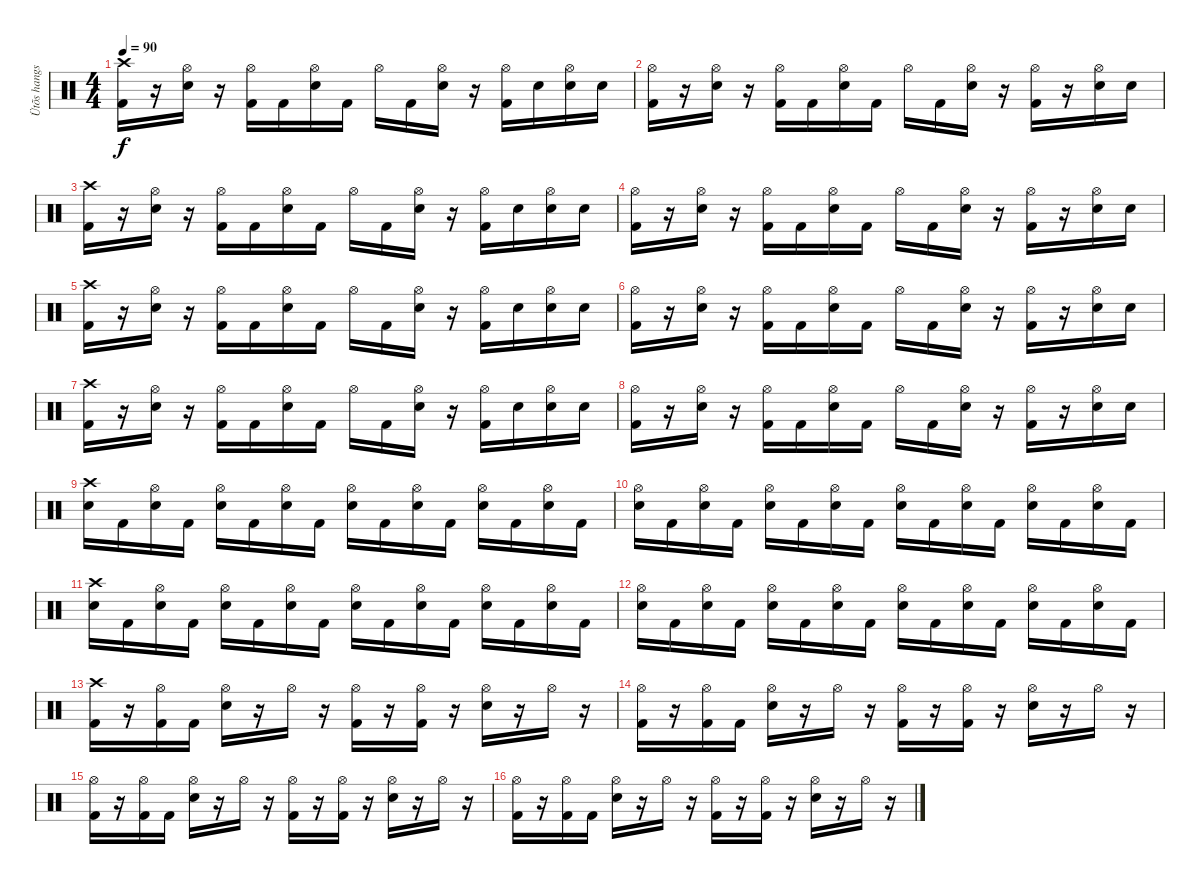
\track ("Ütõs hangszer" "Ütõs hangs") {instrument percussion}
\staff {score}
\articulation defaults
\ts (4 4)
\tempo 90
\clef neutral
\ks c
("Crash high (hit)" "Kick (hit) 2").16{dy f} r.16 ("Hi-Hat (open)" "Snare (hit) 2").16 r.16 ("Hi-Hat (open)" "Kick (hit) 2").16 "Kick (hit) 2".16 ("Hi-Hat (open)" "Snare (hit) 2").16 "Kick (hit) 2".16 "Hi-Hat (open)".16 "Kick (hit) 2".16 ("Hi-Hat (open)" "Snare (hit) 2").16 r.16 ("Hi-Hat (open)" "Kick (hit) 2").16 "Snare (hit) 2".16 ("Hi-Hat (open)" "Snare (hit) 2").16 "Snare (hit) 2".16 |
("Hi-Hat (open)" "Kick (hit) 2").16 r.16 ("Hi-Hat (open)" "Snare (hit) 2").16 r.16 ("Hi-Hat (open)" "Kick (hit) 2").16 "Kick (hit) 2".16 ("Hi-Hat (open)" "Snare (hit) 2").16 "Kick (hit) 2".16 "Hi-Hat (open)".16 "Kick (hit) 2".16 ("Hi-Hat (open)" "Snare (hit) 2").16 r.16 ("Hi-Hat (open)" "Kick (hit) 2").16 r.16 ("Hi-Hat (open)" "Snare (hit) 2").16 "Snare (hit) 2".16 |
("Crash high (hit)" "Kick (hit) 2").16 r.16 ("Hi-Hat (open)" "Snare (hit) 2").16 r.16 ("Hi-Hat (open)" "Kick (hit) 2").16 "Kick (hit) 2".16 ("Hi-Hat (open)" "Snare (hit) 2").16 "Kick (hit) 2".16 "Hi-Hat (open)".16 "Kick (hit) 2".16 ("Hi-Hat (open)" "Snare (hit) 2").16 r.16 ("Hi-Hat (open)" "Kick (hit) 2").16 "Snare (hit) 2".16 ("Hi-Hat (open)" "Snare (hit) 2").16 "Snare (hit) 2".16 |
("Hi-Hat (open)" "Kick (hit) 2").16 r.16 ("Hi-Hat (open)" "Snare (hit) 2").16 r.16 ("Hi-Hat (open)" "Kick (hit) 2").16 "Kick (hit) 2".16 ("Hi-Hat (open)" "Snare (hit) 2").16 "Kick (hit) 2".16 "Hi-Hat (open)".16 "Kick (hit) 2".16 ("Hi-Hat (open)" "Snare (hit) 2").16 r.16 ("Hi-Hat (open)" "Kick (hit) 2").16 r.16 ("Hi-Hat (open)" "Snare (hit) 2").16 "Snare (hit) 2".16 |
("Crash high (hit)" "Kick (hit) 2").16 r.16 ("Hi-Hat (open)" "Snare (hit) 2").16 r.16 ("Hi-Hat (open)" "Kick (hit) 2").16 "Kick (hit) 2".16 ("Hi-Hat (open)" "Snare (hit) 2").16 "Kick (hit) 2".16 "Hi-Hat (open)".16 "Kick (hit) 2".16 ("Hi-Hat (open)" "Snare (hit) 2").16 r.16 ("Hi-Hat (open)" "Kick (hit) 2").16 "Snare (hit) 2".16 ("Hi-Hat (open)" "Snare (hit) 2").16 "Snare (hit) 2".16 |
("Hi-Hat (open)" "Kick (hit) 2").16 r.16 ("Hi-Hat (open)" "Snare (hit) 2").16 r.16 ("Hi-Hat (open)" "Kick (hit) 2").16 "Kick (hit) 2".16 ("Hi-Hat (open)" "Snare (hit) 2").16 "Kick (hit) 2".16 "Hi-Hat (open)".16 "Kick (hit) 2".16 ("Hi-Hat (open)" "Snare (hit) 2").16 r.16 ("Hi-Hat (open)" "Kick (hit) 2").16 r.16 ("Hi-Hat (open)" "Snare (hit) 2").16 "Snare (hit) 2".16 |
("Crash high (hit)" "Kick (hit) 2").16 r.16 ("Hi-Hat (open)" "Snare (hit) 2").16 r.16 ("Hi-Hat (open)" "Kick (hit) 2").16 "Kick (hit) 2".16 ("Hi-Hat (open)" "Snare (hit) 2").16 "Kick (hit) 2".16 "Hi-Hat (open)".16 "Kick (hit) 2".16 ("Hi-Hat (open)" "Snare (hit) 2").16 r.16 ("Hi-Hat (open)" "Kick (hit) 2").16 "Snare (hit) 2".16 ("Hi-Hat (open)" "Snare (hit) 2").16 "Snare (hit) 2".16 |
("Hi-Hat (open)" "Kick (hit) 2").16 r.16 ("Hi-Hat (open)" "Snare (hit) 2").16 r.16 ("Hi-Hat (open)" "Kick (hit) 2").16 "Kick (hit) 2".16 ("Hi-Hat (open)" "Snare (hit) 2").16 "Kick (hit) 2".16 "Hi-Hat (open)".16 "Kick (hit) 2".16 ("Hi-Hat (open)" "Snare (hit) 2").16 r.16 ("Hi-Hat (open)" "Kick (hit) 2").16 r.16 ("Hi-Hat (open)" "Snare (hit) 2").16 "Snare (hit) 2".16 |
("Crash high (hit)" "Snare (hit) 2").16 "Kick (hit) 2".16 ("Hi-Hat (open)" "Snare (hit) 2").16 "Kick (hit) 2".16 ("Hi-Hat (open)" "Snare (hit) 2").16 "Kick (hit) 2".16 ("Hi-Hat (open)" "Snare (hit) 2").16 "Kick (hit) 2".16 ("Hi-Hat (open)" "Snare (hit) 2").16 "Kick (hit) 2".16 ("Hi-Hat (open)" "Snare (hit) 2").16 "Kick (hit) 2".16 ("Hi-Hat (open)" "Snare (hit) 2").16 "Kick (hit) 2".16 ("Hi-Hat (open)" "Snare (hit) 2").16 "Kick (hit) 2".16 |
("Hi-Hat (open)" "Snare (hit) 2").16 "Kick (hit) 2".16 ("Hi-Hat (open)" "Snare (hit) 2").16 "Kick (hit) 2".16 ("Hi-Hat (open)" "Snare (hit) 2").16 "Kick (hit) 2".16 ("Hi-Hat (open)" "Snare (hit) 2").16 "Kick (hit) 2".16 ("Hi-Hat (open)" "Snare (hit) 2").16 "Kick (hit) 2".16 ("Hi-Hat (open)" "Snare (hit) 2").16 "Kick (hit) 2".16 ("Hi-Hat (open)" "Snare (hit) 2").16 "Kick (hit) 2".16 ("Hi-Hat (open)" "Snare (hit) 2").16 "Kick (hit) 2".16 |
("Crash high (hit)" "Snare (hit) 2").16 "Kick (hit) 2".16 ("Hi-Hat (open)" "Snare (hit) 2").16 "Kick (hit) 2".16 ("Hi-Hat (open)" "Snare (hit) 2").16 "Kick (hit) 2".16 ("Hi-Hat (open)" "Snare (hit) 2").16 "Kick (hit) 2".16 ("Hi-Hat (open)" "Snare (hit) 2").16 "Kick (hit) 2".16 ("Hi-Hat (open)" "Snare (hit) 2").16 "Kick (hit) 2".16 ("Hi-Hat (open)" "Snare (hit) 2").16 "Kick (hit) 2".16 ("Hi-Hat (open)" "Snare (hit) 2").16 "Kick (hit) 2".16 |
("Hi-Hat (open)" "Snare (hit) 2").16 "Kick (hit) 2".16 ("Hi-Hat (open)" "Snare (hit) 2").16 "Kick (hit) 2".16 ("Hi-Hat (open)" "Snare (hit) 2").16 "Kick (hit) 2".16 ("Hi-Hat (open)" "Snare (hit) 2").16 "Kick (hit) 2".16 ("Hi-Hat (open)" "Snare (hit) 2").16 "Kick (hit) 2".16 ("Hi-Hat (open)" "Snare (hit) 2").16 "Kick (hit) 2".16 ("Hi-Hat (open)" "Snare (hit) 2").16 "Kick (hit) 2".16 ("Hi-Hat (open)" "Snare (hit) 2").16 "Kick (hit) 2".16 |
("Crash high (hit)" "Kick (hit) 2").16 r.16 ("Hi-Hat (open)" "Kick (hit) 2").16 "Kick (hit) 2".16 ("Hi-Hat (open)" "Snare (hit) 2").16 r.16 "Hi-Hat (open)".16 r.16 ("Hi-Hat (open)" "Kick (hit) 2").16 r.16 ("Hi-Hat (open)" "Kick (hit) 2").16 r.16 ("Hi-Hat (open)" "Snare (hit) 2").16 r.16 "Hi-Hat (open)".16 r.16 |
("Hi-Hat (open)" "Kick (hit) 2").16 r.16 ("Hi-Hat (open)" "Kick (hit) 2").16 "Kick (hit) 2".16 ("Hi-Hat (open)" "Snare (hit) 2").16 r.16 "Hi-Hat (open)".16 r.16 ("Hi-Hat (open)" "Kick (hit) 2").16 r.16 ("Hi-Hat (open)" "Kick (hit) 2").16 r.16 ("Hi-Hat (open)" "Snare (hit) 2").16 r.16 "Hi-Hat (open)".16 r.16 |
("Hi-Hat (open)" "Kick (hit) 2").16 r.16 ("Hi-Hat (open)" "Kick (hit) 2").16 "Kick (hit) 2".16 ("Hi-Hat (open)" "Snare (hit) 2").16 r.16 "Hi-Hat (open)".16 r.16 ("Hi-Hat (open)" "Kick (hit) 2").16 r.16 ("Hi-Hat (open)" "Kick (hit) 2").16 r.16 ("Hi-Hat (open)" "Snare (hit) 2").16 r.16 "Hi-Hat (open)".16 r.16 |
("Hi-Hat (open)" "Kick (hit) 2").16 r.16 ("Hi-Hat (open)" "Kick (hit) 2").16 "Kick (hit) 2".16 ("Hi-Hat (open)" "Snare (hit) 2").16 r.16 "Hi-Hat (open)".16 r.16 ("Hi-Hat (open)" "Kick (hit) 2").16 r.16 ("Hi-Hat (open)" "Kick (hit) 2").16 r.16 ("Hi-Hat (open)" "Snare (hit) 2").16 r.16 "Hi-Hat (open)".16 r.16
